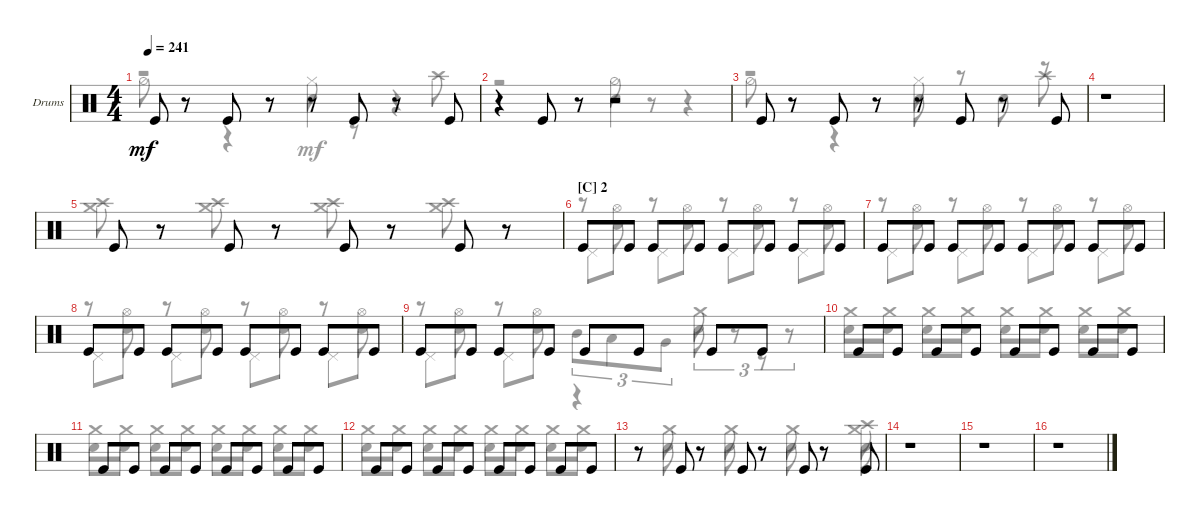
\defaultSystemsLayout 4
\bracketExtendMode groupsimilarinstruments
\firstSystemTrackNameOrientation horizontal
\otherSystemsTrackNameOrientation horizontal
\track ("Drumkit" "Drums") {instrument percussion}
\staff {score}
\articulation defaults
\voice
\ts (4 4)
\tempo 241
\clef neutral
\ks c "Kick (hit)".8{dy mf}
r.8 "Kick (hit)".8 r.8 r.8 "Kick (hit)".8 r.8 "Kick (hit)".8 |
r.4 "Kick (hit)".8 r.8 r.2 |
"Kick (hit)".8 r.8 "Kick (hit)".8 r.8 r.8 "Kick (hit)".8 r.8 "Kick (hit)".8 |
r.1 |
"Kick (hit)".8 r.8 "Kick (hit)".8 r.8 "Kick (hit)".8 r.8 "Kick (hit)".8 r.8 |
\section ("C" "2")
"Kick (hit)".8 "Kick (hit)".8 "Kick (hit)".8 "Kick (hit)".8 "Kick (hit)".8 "Kick (hit)".8 "Kick (hit)".8 "Kick (hit)".8 |
"Kick (hit)".8 "Kick (hit)".8 "Kick (hit)".8 "Kick (hit)".8 "Kick (hit)".8 "Kick (hit)".8 "Kick (hit)".8 "Kick (hit)".8 |
"Kick (hit)".8 "Kick (hit)".8 "Kick (hit)".8 "Kick (hit)".8 "Kick (hit)".8 "Kick (hit)".8 "Kick (hit)".8 "Kick (hit)".8 |
"Kick (hit)".8 "Kick (hit)".8 "Kick (hit)".8 "Kick (hit)".8 "Kick (hit)".8 "Kick (hit)".8 "Kick (hit)".8 "Kick (hit)".8 |
"Kick (hit)".8 "Kick (hit)".8 "Kick (hit)".8 "Kick (hit)".8 "Kick (hit)".8 "Kick (hit)".8 "Kick (hit)".8 "Kick (hit)".8 |
"Kick (hit)".8 "Kick (hit)".8 "Kick (hit)".8 "Kick (hit)".8 "Kick (hit)".8 "Kick (hit)".8 "Kick (hit)".8 "Kick (hit)".8 |
"Kick (hit)".8 "Kick (hit)".8 "Kick (hit)".8 "Kick (hit)".8 "Kick (hit)".8 "Kick (hit)".8 "Kick (hit)".8 "Kick (hit)".8 |
r.8 "Kick (hit)".8 r.8 "Kick (hit)".8 r.8 "Kick (hit)".8 r.8 "Kick (hit)".8 |
r.1 |
r.1 |
r.1
\voice
\clef neutral
\ottava regular
\simile none
\ks c
r.2{dy mf} "Snare (hit) 2".4 r.4 |
r.2 "Snare (hit) 2".4 r.4 |
r.2 "Snare (hit) 2".8 r.8 "Snare (hit) 2".8 r.8 |
|
|
r.8 "Snare (hit) 2".8 r.8 "Snare (hit) 2".8 r.8 "Snare (hit) 2".8 r.8 "Snare (hit) 2".8 |
r.8 "Snare (hit) 2".8 r.8 "Snare (hit) 2".8 r.8 "Snare (hit) 2".8 r.8 "Snare (hit) 2".8 |
r.8 "Snare (hit) 2".8 r.8 "Snare (hit) 2".8 r.8 "Snare (hit) 2".8 r.8 "Snare (hit) 2".8 |
r.8 "Snare (hit) 2".8 r.8 "Snare (hit) 2".8 "Mid Tom (hit)".8{tu (3 2)} "Low Tom (hit)".8{tu (3 2)} "Very Low Tom (hit)".8{tu (3 2)} "Snare (hit) 2".8{tu (3 2)} r.8{tu (3 2)} r.8{tu (3 2)} |
"Snare (hit) 2".8 "Snare (hit) 2".8 "Snare (hit) 2".8 "Snare (hit) 2".8 "Snare (hit) 2".8 "Snare (hit) 2".8 "Snare (hit) 2".8 "Snare (hit) 2".8 |
"Snare (hit) 2".8 "Snare (hit) 2".8 "Snare (hit) 2".8 "Snare (hit) 2".8 "Snare (hit) 2".8 "Snare (hit) 2".8 "Snare (hit) 2".8 "Snare (hit) 2".8 |
"Snare (hit) 2".8 "Snare (hit) 2".8 "Snare (hit) 2".8 "Snare (hit) 2".8 "Snare (hit) 2".8 "Snare (hit) 2".8 "Snare (hit) 2".8 "Snare (hit) 2".8 |
r.8 "Snare (hit) 2".8 r.8 "Snare (hit) 2".8 r.8 "Snare (hit) 2".8 r.8 "Snare (hit) 2".8 |
|
|
\voice
\clef neutral
\ottava regular
\simile none
\ks c "Hi-Hat (half)".8{dy mf}
r.8 r.4 "Hi-Hat (closed)".8 r.8 r.8 "Crash high (hit)".8 |
r.2 "Hi-Hat (half)".8 r.8 r.4 |
"Hi-Hat (half)".8 r.8 r.4 "Hi-Hat (closed)".8 r.8 r.8 "Crash high (hit)".8 |
|
("Crash medium (hit)" "Crash high (hit)").8 r.8 ("Crash medium (hit)" "Crash high (hit)").8 r.8 ("Crash medium (hit)" "Crash high (hit)").8 r.8 ("Crash medium (hit)" "Crash high (hit)").8 r.8 |
"Pedal Hi-Hat (hit)".8 "Hi-Hat (open)".8 "Pedal Hi-Hat (hit)".8 "Hi-Hat (open)".8 "Pedal Hi-Hat (hit)".8 "Hi-Hat (open)".8 "Pedal Hi-Hat (hit)".8 "Hi-Hat (open)".8 |
"Pedal Hi-Hat (hit)".8 "Hi-Hat (open)".8 "Pedal Hi-Hat (hit)".8 "Hi-Hat (open)".8 "Pedal Hi-Hat (hit)".8 "Hi-Hat (open)".8 "Pedal Hi-Hat (hit)".8 "Hi-Hat (open)".8 |
"Pedal Hi-Hat (hit)".8 "Hi-Hat (open)".8 "Pedal Hi-Hat (hit)".8 "Hi-Hat (open)".8 "Pedal Hi-Hat (hit)".8 "Hi-Hat (open)".8 "Pedal Hi-Hat (hit)".8 "Hi-Hat (open)".8 |
"Pedal Hi-Hat (hit)".8 "Hi-Hat (open)".8 "Pedal Hi-Hat (hit)".8 "Hi-Hat (open)".8 r.4 "Crash medium (hit)".8 r.8 |
"Crash medium (hit)".8 "Crash medium (hit)".8 "Crash medium (hit)".8 "Crash medium (hit)".8 "Crash medium (hit)".8 "Crash medium (hit)".8 "Crash medium (hit)".8 "Crash medium (hit)".8 |
"Crash medium (hit)".8 "Crash medium (hit)".8 "Crash medium (hit)".8 "Crash medium (hit)".8 "Crash medium (hit)".8 "Crash medium (hit)".8 "Crash medium (hit)".8 "Crash medium (hit)".8 |
"Crash medium (hit)".8 "Crash medium (hit)".8 "Crash medium (hit)".8 "Crash medium (hit)".8 "Crash medium (hit)".8 "Crash medium (hit)".8 "Crash medium (hit)".8 "Crash medium (hit)".8 |
r.8 "Crash medium (hit)".8 r.8 "Crash medium (hit)".8 r.8 "Crash medium (hit)".8 r.8 ("Crash medium (hit)" "Crash high (hit)").8 |
|
|
